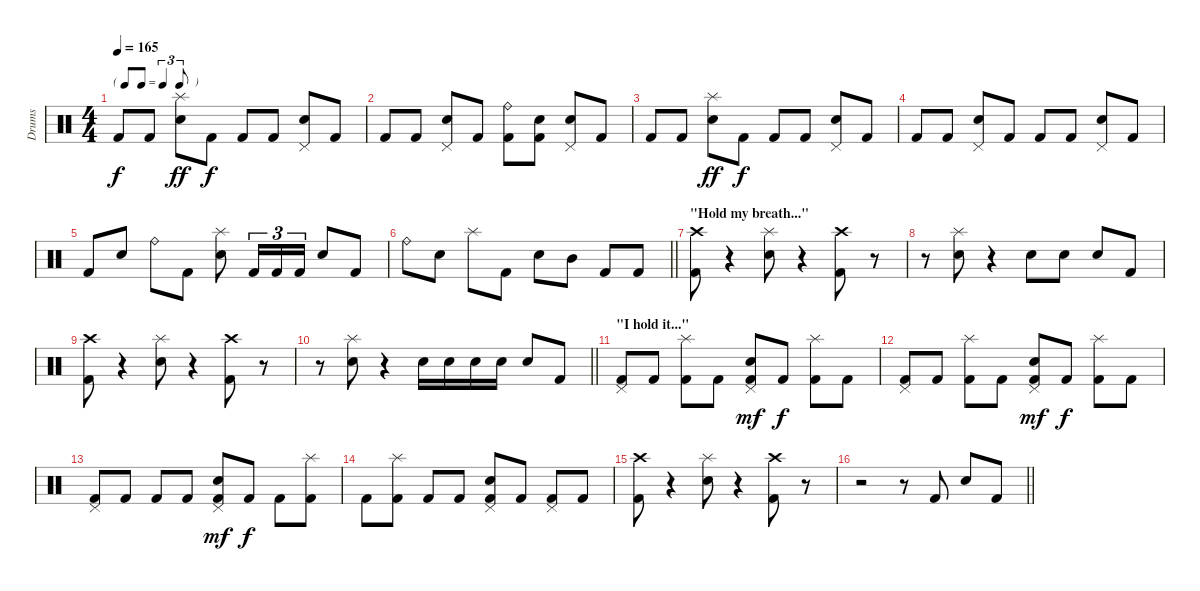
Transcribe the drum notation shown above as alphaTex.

\track ("Drums" "Drums") {instrument percussion}
\staff {score}
\articulation defaults
\ts (4 4)
\tf triplet8th
\tempo 165
\clef neutral
\ks c "Kick (hit) 2".8{dy f} "Kick (hit) 2".8
("Splash (hit)" "Electric Snare (hit)").8{dy ff} "Kick (hit) 2".8{dy f} "Kick (hit) 2".8 "Kick (hit) 2".8 ("Pedal Hi-Hat (hit)" "Electric Snare (hit)").8 "Kick (hit) 2".8 |
"Kick (hit) 2".8 "Kick (hit) 2".8 ("Pedal Hi-Hat (hit)" "Electric Snare (hit)").8 "Kick (hit) 2".8 ("Ride (bell)" "Kick (hit) 2").8 ("Electric Snare (hit)" "Kick (hit) 2").8 ("Pedal Hi-Hat (hit)" "Electric Snare (hit)").8 "Kick (hit) 2".8 |
"Kick (hit) 2".8 "Kick (hit) 2".8 ("Splash (hit)" "Electric Snare (hit)").8{dy ff} "Kick (hit) 2".8{dy f} "Kick (hit) 2".8 "Kick (hit) 2".8 ("Pedal Hi-Hat (hit)" "Electric Snare (hit)").8 "Kick (hit) 2".8 |
"Kick (hit) 2".8 "Kick (hit) 2".8 ("Pedal Hi-Hat (hit)" "Electric Snare (hit)").8 "Kick (hit) 2".8 "Kick (hit) 2".8 "Kick (hit) 2".8 ("Pedal Hi-Hat (hit)" "Electric Snare (hit)").8 "Kick (hit) 2".8 |
"Kick (hit) 2".8 "Electric Snare (hit)".8 "Ride (bell)".8 "Kick (hit) 2".8 ("Splash (hit)" "Electric Snare (hit)").8 "Kick (hit) 2".16{tu (3 2)} "Kick (hit) 2".16{tu (3 2)} "Kick (hit) 2".16{tu (3 2)} "Electric Snare (hit)".8 "Kick (hit) 2".8 |
\barLineRight lightlight "Ride (bell)".8 "Electric Snare (hit)".8 "Splash (hit)".8 "Kick (hit) 2".8 "Electric Snare (hit)".8 "Mid Tom (hit)".8 "Kick (hit) 2".8 "Kick (hit) 2".8
|
\section ("" "\"Hold my breath...\"")
("Crash high (hit)" "Kick (hit) 2").8 r.4 ("Splash (hit)" "Electric Snare (hit)").8 r.4 ("Crash high (hit)" "Kick (hit) 2").8 r.8 |
r.8 ("Splash (hit)" "Electric Snare (hit)").8 r.4 "Electric Snare (hit)".8 "Electric Snare (hit)".8 "Electric Snare (hit)".8 "Kick (hit) 2".8 |
("Crash high (hit)" "Kick (hit) 2").8 r.4 ("Splash (hit)" "Electric Snare (hit)").8 r.4 ("Crash high (hit)" "Kick (hit) 2").8 r.8 |
\barLineRight lightlight
r.8 ("Splash (hit)" "Electric Snare (hit)").8 r.4 "Electric Snare (hit)".16 "Electric Snare (hit)".16 "Electric Snare (hit)".16 "Electric Snare (hit)".16 "Electric Snare (hit)".8 "Kick (hit) 2".8 |
\section ("" "\"I hold it...\"")
("Pedal Hi-Hat (hit)" "Kick (hit) 2").8 "Kick (hit) 2".8 ("Splash (hit)" "Kick (hit) 2").8 "Kick (hit) 2".8 ("Pedal Hi-Hat (hit)" "Electric Snare (hit)" "Kick (hit) 2").8{dy mf} "Kick (hit) 2".8{dy f} ("Splash (hit)" "Kick (hit) 2").8 "Kick (hit) 2".8 |
("Pedal Hi-Hat (hit)" "Kick (hit) 2").8 "Kick (hit) 2".8 ("Splash (hit)" "Kick (hit) 2").8 "Kick (hit) 2".8 ("Pedal Hi-Hat (hit)" "Electric Snare (hit)" "Kick (hit) 2").8{dy mf} "Kick (hit) 2".8{dy f} ("Splash (hit)" "Kick (hit) 2").8 "Kick (hit) 2".8 |
("Pedal Hi-Hat (hit)" "Kick (hit) 2").8 "Kick (hit) 2".8 "Kick (hit) 2".8 "Kick (hit) 2".8 ("Pedal Hi-Hat (hit)" "Electric Snare (hit)" "Kick (hit) 2").8{dy mf} "Kick (hit) 2".8{dy f} "Kick (hit) 2".8 ("Splash (hit)" "Kick (hit) 2").8 |
"Kick (hit) 2".8 ("Splash (hit)" "Kick (hit) 2").8 "Kick (hit) 2".8 "Kick (hit) 2".8 ("Pedal Hi-Hat (hit)" "Electric Snare (hit)" "Kick (hit) 2").8 "Kick (hit) 2".8 ("Pedal Hi-Hat (hit)" "Kick (hit) 2").8 "Kick (hit) 2".8 |
("Crash high (hit)" "Kick (hit) 2").8 r.4 ("Splash (hit)" "Electric Snare (hit)").8 r.4 ("Crash high (hit)" "Kick (hit) 2").8 r.8 |
\barLineRight lightlight
r.2 r.8 "Kick (hit) 2".8 "Electric Snare (hit)".8 "Kick (hit) 2".8
